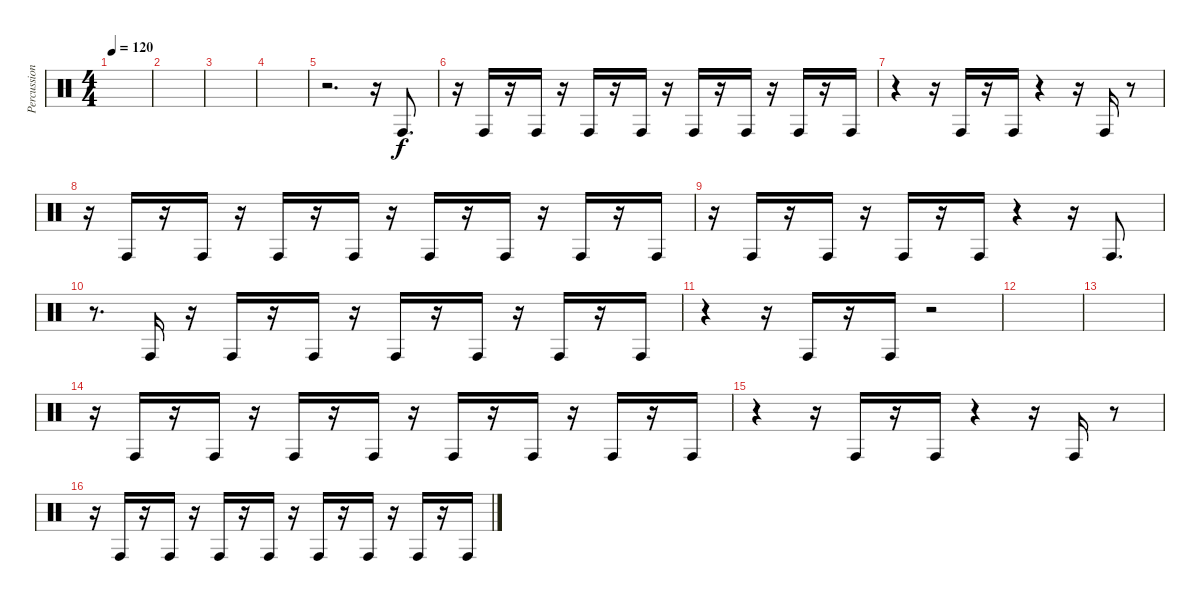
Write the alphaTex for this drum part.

\track ("Percussions 2" "Percussion") {instrument percussion}
\staff {score}
\articulation defaults
\ts (4 4)
\tempo 120
\clef neutral
\ks c
|
|
|
|
r.2{d} r.16 "Conga high (hit)".8{d} |
r.16 "Conga high (hit)".16 r.16 "Conga high (hit)".16 r.16 "Conga high (hit)".16 r.16 "Conga high (hit)".16 r.16 "Conga high (hit)".16 r.16 "Conga high (hit)".16 r.16 "Conga high (hit)".16 r.16 "Conga high (hit)".16 |
r.4 r.16 "Conga high (hit)".16 r.16 "Conga high (hit)".16 r.4 r.16 "Conga high (hit)".16 r.8 |
r.16 "Conga high (hit)".16 r.16 "Conga high (hit)".16 r.16 "Conga high (hit)".16 r.16 "Conga high (hit)".16 r.16 "Conga high (hit)".16 r.16 "Conga high (hit)".16 r.16 "Conga high (hit)".16 r.16 "Conga high (hit)".16 |
r.16 "Conga high (hit)".16 r.16 "Conga high (hit)".16 r.16 "Conga high (hit)".16 r.16 "Conga high (hit)".16 r.4 r.16 "Conga high (hit)".8{d} |
r.8{d} "Conga high (hit)".16 r.16 "Conga high (hit)".16 r.16 "Conga high (hit)".16 r.16 "Conga high (hit)".16 r.16 "Conga high (hit)".16 r.16 "Conga high (hit)".16 r.16 "Conga high (hit)".16 |
r.4 r.16 "Conga high (hit)".16 r.16 "Conga high (hit)".16 r.2 |
|
|
r.16 "Conga high (hit)".16 r.16 "Conga high (hit)".16 r.16 "Conga high (hit)".16 r.16 "Conga high (hit)".16 r.16 "Conga high (hit)".16 r.16 "Conga high (hit)".16 r.16 "Conga high (hit)".16 r.16 "Conga high (hit)".16 |
r.4 r.16 "Conga high (hit)".16 r.16 "Conga high (hit)".16 r.4 r.16 "Conga high (hit)".16 r.8 |
r.16 "Conga high (hit)".16 r.16 "Conga high (hit)".16 r.16 "Conga high (hit)".16 r.16 "Conga high (hit)".16 r.16 "Conga high (hit)".16 r.16 "Conga high (hit)".16 r.16 "Conga high (hit)".16 r.16 "Conga high (hit)".16
